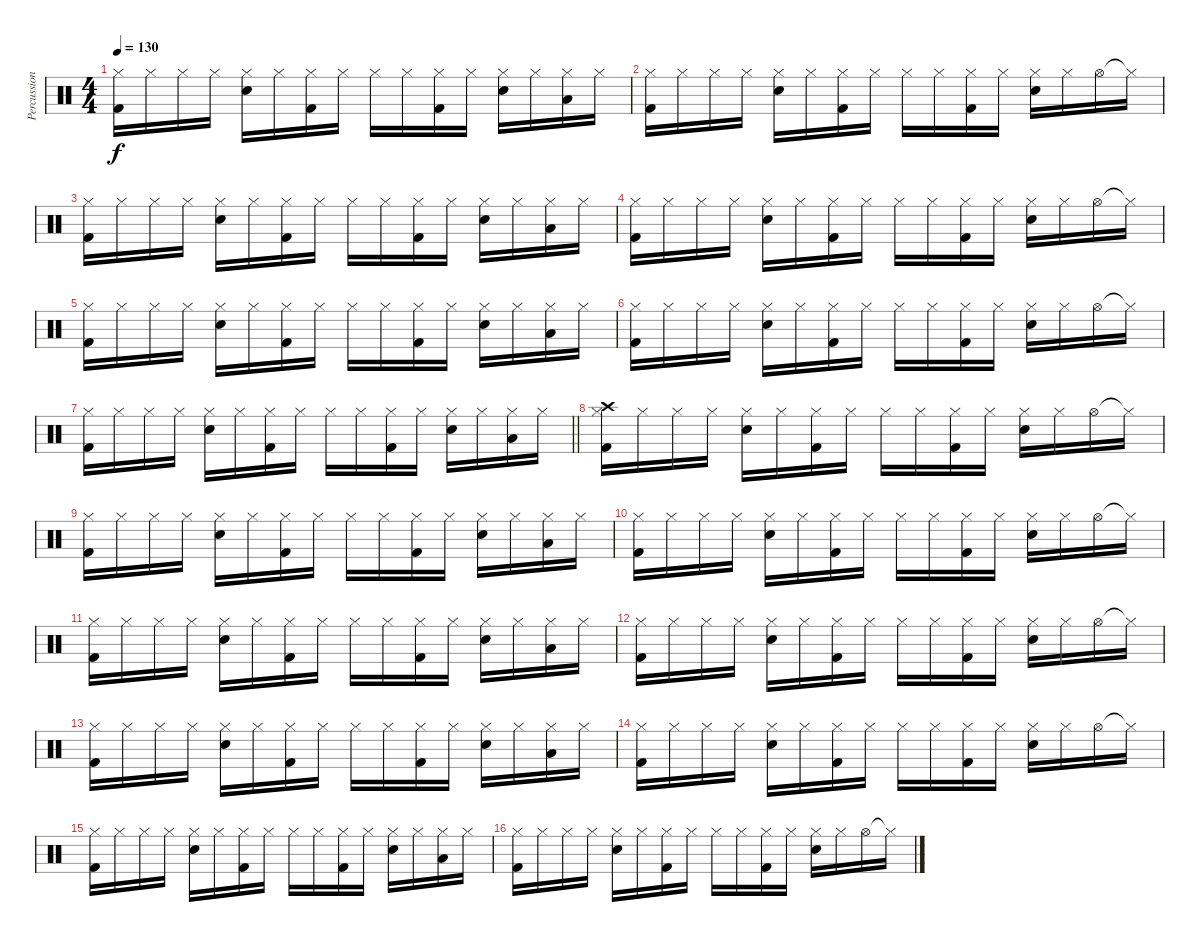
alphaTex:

\track ("Percussion" "Percussion") {instrument percussion}
\staff {score}
\articulation defaults
\ts (4 4)
\tempo 130
\clef neutral
\ks c
("Hi-Hat (closed)" "Kick (hit) 2").16{dy f} "Hi-Hat (closed)".16 "Hi-Hat (closed)".16 "Hi-Hat (closed)".16 ("Hi-Hat (closed)" "Snare (hit) 2").16 "Hi-Hat (closed)".16 ("Hi-Hat (closed)" "Kick (hit) 2").16 "Hi-Hat (closed)".16 "Hi-Hat (closed)".16 "Hi-Hat (closed)".16 ("Hi-Hat (closed)" "Kick (hit) 2").16 "Hi-Hat (closed)".16 ("Hi-Hat (closed)" "Snare (hit) 2").16 "Hi-Hat (closed)".16 ("Hi-Hat (closed)" "Low Tom (hit)").16 "Hi-Hat (closed)".16 |
("Hi-Hat (closed)" "Kick (hit) 2").16 "Hi-Hat (closed)".16 "Hi-Hat (closed)".16 "Hi-Hat (closed)".16 ("Hi-Hat (closed)" "Snare (hit) 2").16 "Hi-Hat (closed)".16 ("Hi-Hat (closed)" "Kick (hit) 2").16 "Hi-Hat (closed)".16 "Hi-Hat (closed)".16 "Hi-Hat (closed)".16 ("Hi-Hat (closed)" "Kick (hit) 2").16 "Hi-Hat (closed)".16 ("Hi-Hat (closed)" "Snare (hit) 2").16 "Hi-Hat (closed)".16 "Hi-Hat (open)".16 "Hi-Hat (closed)"{t}.16 |
("Hi-Hat (closed)" "Kick (hit) 2").16 "Hi-Hat (closed)".16 "Hi-Hat (closed)".16 "Hi-Hat (closed)".16 ("Hi-Hat (closed)" "Snare (hit) 2").16 "Hi-Hat (closed)".16 ("Hi-Hat (closed)" "Kick (hit) 2").16 "Hi-Hat (closed)".16 "Hi-Hat (closed)".16 "Hi-Hat (closed)".16 ("Hi-Hat (closed)" "Kick (hit) 2").16 "Hi-Hat (closed)".16 ("Hi-Hat (closed)" "Snare (hit) 2").16 "Hi-Hat (closed)".16 ("Hi-Hat (closed)" "Low Tom (hit)").16 "Hi-Hat (closed)".16 |
("Hi-Hat (closed)" "Kick (hit) 2").16 "Hi-Hat (closed)".16 "Hi-Hat (closed)".16 "Hi-Hat (closed)".16 ("Hi-Hat (closed)" "Snare (hit) 2").16 "Hi-Hat (closed)".16 ("Hi-Hat (closed)" "Kick (hit) 2").16 "Hi-Hat (closed)".16 "Hi-Hat (closed)".16 "Hi-Hat (closed)".16 ("Hi-Hat (closed)" "Kick (hit) 2").16 "Hi-Hat (closed)".16 ("Hi-Hat (closed)" "Snare (hit) 2").16 "Hi-Hat (closed)".16 "Hi-Hat (open)".16 "Hi-Hat (closed)"{t}.16 |
("Hi-Hat (closed)" "Kick (hit) 2").16 "Hi-Hat (closed)".16 "Hi-Hat (closed)".16 "Hi-Hat (closed)".16 ("Hi-Hat (closed)" "Snare (hit) 2").16 "Hi-Hat (closed)".16 ("Hi-Hat (closed)" "Kick (hit) 2").16 "Hi-Hat (closed)".16 "Hi-Hat (closed)".16 "Hi-Hat (closed)".16 ("Hi-Hat (closed)" "Kick (hit) 2").16 "Hi-Hat (closed)".16 ("Hi-Hat (closed)" "Snare (hit) 2").16 "Hi-Hat (closed)".16 ("Hi-Hat (closed)" "Low Tom (hit)").16 "Hi-Hat (closed)".16 |
("Hi-Hat (closed)" "Kick (hit) 2").16 "Hi-Hat (closed)".16 "Hi-Hat (closed)".16 "Hi-Hat (closed)".16 ("Hi-Hat (closed)" "Snare (hit) 2").16 "Hi-Hat (closed)".16 ("Hi-Hat (closed)" "Kick (hit) 2").16 "Hi-Hat (closed)".16 "Hi-Hat (closed)".16 "Hi-Hat (closed)".16 ("Hi-Hat (closed)" "Kick (hit) 2").16 "Hi-Hat (closed)".16 ("Hi-Hat (closed)" "Snare (hit) 2").16 "Hi-Hat (closed)".16 "Hi-Hat (open)".16 "Hi-Hat (closed)"{t}.16 |
\barLineRight lightlight
("Hi-Hat (closed)" "Kick (hit) 2").16 "Hi-Hat (closed)".16 "Hi-Hat (closed)".16 "Hi-Hat (closed)".16 ("Hi-Hat (closed)" "Snare (hit) 2").16 "Hi-Hat (closed)".16 ("Hi-Hat (closed)" "Kick (hit) 2").16 "Hi-Hat (closed)".16 "Hi-Hat (closed)".16 "Hi-Hat (closed)".16 ("Hi-Hat (closed)" "Kick (hit) 2").16 "Hi-Hat (closed)".16 ("Hi-Hat (closed)" "Snare (hit) 2").16 "Hi-Hat (closed)".16 ("Hi-Hat (closed)" "Low Tom (hit)").16 "Hi-Hat (closed)".16 |
("Hi-Hat (closed)" "Crash high (hit)" "Kick (hit) 2").16 "Hi-Hat (closed)".16 "Hi-Hat (closed)".16 "Hi-Hat (closed)".16 ("Hi-Hat (closed)" "Snare (hit) 2").16 "Hi-Hat (closed)".16 ("Hi-Hat (closed)" "Kick (hit) 2").16 "Hi-Hat (closed)".16 "Hi-Hat (closed)".16 "Hi-Hat (closed)".16 ("Hi-Hat (closed)" "Kick (hit) 2").16 "Hi-Hat (closed)".16 ("Hi-Hat (closed)" "Snare (hit) 2").16 "Hi-Hat (closed)".16 "Hi-Hat (open)".16 "Hi-Hat (closed)"{t}.16 |
("Hi-Hat (closed)" "Kick (hit) 2").16 "Hi-Hat (closed)".16 "Hi-Hat (closed)".16 "Hi-Hat (closed)".16 ("Hi-Hat (closed)" "Snare (hit) 2").16 "Hi-Hat (closed)".16 ("Hi-Hat (closed)" "Kick (hit) 2").16 "Hi-Hat (closed)".16 "Hi-Hat (closed)".16 "Hi-Hat (closed)".16 ("Hi-Hat (closed)" "Kick (hit) 2").16 "Hi-Hat (closed)".16 ("Hi-Hat (closed)" "Snare (hit) 2").16 "Hi-Hat (closed)".16 ("Hi-Hat (closed)" "Low Tom (hit)").16 "Hi-Hat (closed)".16 |
("Hi-Hat (closed)" "Kick (hit) 2").16 "Hi-Hat (closed)".16 "Hi-Hat (closed)".16 "Hi-Hat (closed)".16 ("Hi-Hat (closed)" "Snare (hit) 2").16 "Hi-Hat (closed)".16 ("Hi-Hat (closed)" "Kick (hit) 2").16 "Hi-Hat (closed)".16 "Hi-Hat (closed)".16 "Hi-Hat (closed)".16 ("Hi-Hat (closed)" "Kick (hit) 2").16 "Hi-Hat (closed)".16 ("Hi-Hat (closed)" "Snare (hit) 2").16 "Hi-Hat (closed)".16 "Hi-Hat (open)".16 "Hi-Hat (closed)"{t}.16 |
("Hi-Hat (closed)" "Kick (hit) 2").16 "Hi-Hat (closed)".16 "Hi-Hat (closed)".16 "Hi-Hat (closed)".16 ("Hi-Hat (closed)" "Snare (hit) 2").16 "Hi-Hat (closed)".16 ("Hi-Hat (closed)" "Kick (hit) 2").16 "Hi-Hat (closed)".16 "Hi-Hat (closed)".16 "Hi-Hat (closed)".16 ("Hi-Hat (closed)" "Kick (hit) 2").16 "Hi-Hat (closed)".16 ("Hi-Hat (closed)" "Snare (hit) 2").16 "Hi-Hat (closed)".16 ("Hi-Hat (closed)" "Low Tom (hit)").16 "Hi-Hat (closed)".16 |
("Hi-Hat (closed)" "Kick (hit) 2").16 "Hi-Hat (closed)".16 "Hi-Hat (closed)".16 "Hi-Hat (closed)".16 ("Hi-Hat (closed)" "Snare (hit) 2").16 "Hi-Hat (closed)".16 ("Hi-Hat (closed)" "Kick (hit) 2").16 "Hi-Hat (closed)".16 "Hi-Hat (closed)".16 "Hi-Hat (closed)".16 ("Hi-Hat (closed)" "Kick (hit) 2").16 "Hi-Hat (closed)".16 ("Hi-Hat (closed)" "Snare (hit) 2").16 "Hi-Hat (closed)".16 "Hi-Hat (open)".16 "Hi-Hat (closed)"{t}.16 |
("Hi-Hat (closed)" "Kick (hit) 2").16 "Hi-Hat (closed)".16 "Hi-Hat (closed)".16 "Hi-Hat (closed)".16 ("Hi-Hat (closed)" "Snare (hit) 2").16 "Hi-Hat (closed)".16 ("Hi-Hat (closed)" "Kick (hit) 2").16 "Hi-Hat (closed)".16 "Hi-Hat (closed)".16 "Hi-Hat (closed)".16 ("Hi-Hat (closed)" "Kick (hit) 2").16 "Hi-Hat (closed)".16 ("Hi-Hat (closed)" "Snare (hit) 2").16 "Hi-Hat (closed)".16 ("Hi-Hat (closed)" "Low Tom (hit)").16 "Hi-Hat (closed)".16 |
("Hi-Hat (closed)" "Kick (hit) 2").16 "Hi-Hat (closed)".16 "Hi-Hat (closed)".16 "Hi-Hat (closed)".16 ("Hi-Hat (closed)" "Snare (hit) 2").16 "Hi-Hat (closed)".16 ("Hi-Hat (closed)" "Kick (hit) 2").16 "Hi-Hat (closed)".16 "Hi-Hat (closed)".16 "Hi-Hat (closed)".16 ("Hi-Hat (closed)" "Kick (hit) 2").16 "Hi-Hat (closed)".16 ("Hi-Hat (closed)" "Snare (hit) 2").16 "Hi-Hat (closed)".16 "Hi-Hat (open)".16 "Hi-Hat (closed)"{t}.16 |
("Hi-Hat (closed)" "Kick (hit) 2").16 "Hi-Hat (closed)".16 "Hi-Hat (closed)".16 "Hi-Hat (closed)".16 ("Hi-Hat (closed)" "Snare (hit) 2").16 "Hi-Hat (closed)".16 ("Hi-Hat (closed)" "Kick (hit) 2").16 "Hi-Hat (closed)".16 "Hi-Hat (closed)".16 "Hi-Hat (closed)".16 ("Hi-Hat (closed)" "Kick (hit) 2").16 "Hi-Hat (closed)".16 ("Hi-Hat (closed)" "Snare (hit) 2").16 "Hi-Hat (closed)".16 ("Hi-Hat (closed)" "Low Tom (hit)").16 "Hi-Hat (closed)".16 |
("Hi-Hat (closed)" "Kick (hit) 2").16 "Hi-Hat (closed)".16 "Hi-Hat (closed)".16 "Hi-Hat (closed)".16 ("Hi-Hat (closed)" "Snare (hit) 2").16 "Hi-Hat (closed)".16 ("Hi-Hat (closed)" "Kick (hit) 2").16 "Hi-Hat (closed)".16 "Hi-Hat (closed)".16 "Hi-Hat (closed)".16 ("Hi-Hat (closed)" "Kick (hit) 2").16 "Hi-Hat (closed)".16 ("Hi-Hat (closed)" "Snare (hit) 2").16 "Hi-Hat (closed)".16 "Hi-Hat (open)".16 "Hi-Hat (closed)"{t}.16
